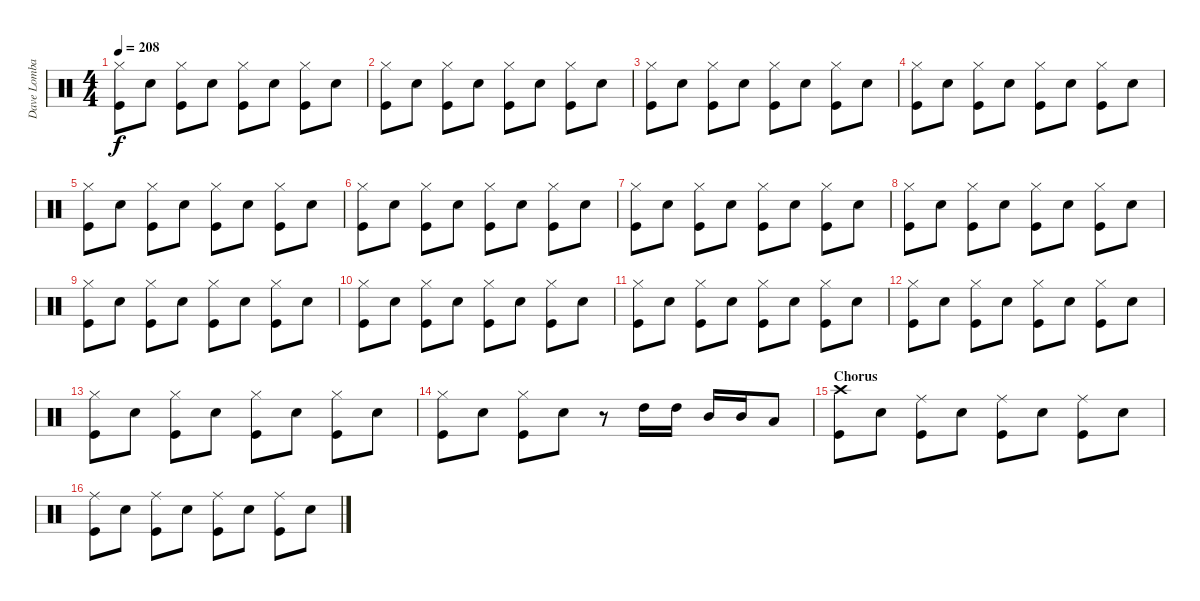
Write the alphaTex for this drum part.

\track ("Dave Lombardo" "Dave Lomba") {instrument percussion}
\staff {score}
\articulation defaults
\ts (4 4)
\tempo 208
\clef neutral
\ks c
("Hi-Hat (closed)" "Kick (hit)").8{dy f} "Electric Snare (hit)".8 ("Hi-Hat (closed)" "Kick (hit)").8 "Electric Snare (hit)".8 ("Hi-Hat (closed)" "Kick (hit)").8 "Electric Snare (hit)".8 ("Hi-Hat (closed)" "Kick (hit)").8 "Electric Snare (hit)".8 |
("Hi-Hat (closed)" "Kick (hit)").8 "Electric Snare (hit)".8 ("Hi-Hat (closed)" "Kick (hit)").8 "Electric Snare (hit)".8 ("Hi-Hat (closed)" "Kick (hit)").8 "Electric Snare (hit)".8 ("Hi-Hat (closed)" "Kick (hit)").8 "Electric Snare (hit)".8 |
("Hi-Hat (closed)" "Kick (hit)").8 "Electric Snare (hit)".8 ("Hi-Hat (closed)" "Kick (hit)").8 "Electric Snare (hit)".8 ("Hi-Hat (closed)" "Kick (hit)").8 "Electric Snare (hit)".8 ("Hi-Hat (closed)" "Kick (hit)").8 "Electric Snare (hit)".8 |
("Hi-Hat (closed)" "Kick (hit)").8 "Electric Snare (hit)".8 ("Hi-Hat (closed)" "Kick (hit)").8 "Electric Snare (hit)".8 ("Hi-Hat (closed)" "Kick (hit)").8 "Electric Snare (hit)".8 ("Hi-Hat (closed)" "Kick (hit)").8 "Electric Snare (hit)".8 |
("Hi-Hat (closed)" "Kick (hit)").8 "Electric Snare (hit)".8 ("Hi-Hat (closed)" "Kick (hit)").8 "Electric Snare (hit)".8 ("Hi-Hat (closed)" "Kick (hit)").8 "Electric Snare (hit)".8 ("Hi-Hat (closed)" "Kick (hit)").8 "Electric Snare (hit)".8 |
("Hi-Hat (closed)" "Kick (hit)").8 "Electric Snare (hit)".8 ("Hi-Hat (closed)" "Kick (hit)").8 "Electric Snare (hit)".8 ("Hi-Hat (closed)" "Kick (hit)").8 "Electric Snare (hit)".8 ("Hi-Hat (closed)" "Kick (hit)").8 "Electric Snare (hit)".8 |
("Hi-Hat (closed)" "Kick (hit)").8 "Electric Snare (hit)".8 ("Hi-Hat (closed)" "Kick (hit)").8 "Electric Snare (hit)".8 ("Hi-Hat (closed)" "Kick (hit)").8 "Electric Snare (hit)".8 ("Hi-Hat (closed)" "Kick (hit)").8 "Electric Snare (hit)".8 |
("Hi-Hat (closed)" "Kick (hit)").8 "Electric Snare (hit)".8 ("Hi-Hat (closed)" "Kick (hit)").8 "Electric Snare (hit)".8 ("Hi-Hat (closed)" "Kick (hit)").8 "Electric Snare (hit)".8 ("Hi-Hat (closed)" "Kick (hit)").8 "Electric Snare (hit)".8 |
("Hi-Hat (closed)" "Kick (hit)").8 "Electric Snare (hit)".8 ("Hi-Hat (closed)" "Kick (hit)").8 "Electric Snare (hit)".8 ("Hi-Hat (closed)" "Kick (hit)").8 "Electric Snare (hit)".8 ("Hi-Hat (closed)" "Kick (hit)").8 "Electric Snare (hit)".8 |
("Hi-Hat (closed)" "Kick (hit)").8 "Electric Snare (hit)".8 ("Hi-Hat (closed)" "Kick (hit)").8 "Electric Snare (hit)".8 ("Hi-Hat (closed)" "Kick (hit)").8 "Electric Snare (hit)".8 ("Hi-Hat (closed)" "Kick (hit)").8 "Electric Snare (hit)".8 |
("Hi-Hat (closed)" "Kick (hit)").8 "Electric Snare (hit)".8 ("Hi-Hat (closed)" "Kick (hit)").8 "Electric Snare (hit)".8 ("Hi-Hat (closed)" "Kick (hit)").8 "Electric Snare (hit)".8 ("Hi-Hat (closed)" "Kick (hit)").8 "Electric Snare (hit)".8 |
("Hi-Hat (closed)" "Kick (hit)").8 "Electric Snare (hit)".8 ("Hi-Hat (closed)" "Kick (hit)").8 "Electric Snare (hit)".8 ("Hi-Hat (closed)" "Kick (hit)").8 "Electric Snare (hit)".8 ("Hi-Hat (closed)" "Kick (hit)").8 "Electric Snare (hit)".8 |
("Hi-Hat (closed)" "Kick (hit)").8 "Electric Snare (hit)".8 ("Hi-Hat (closed)" "Kick (hit)").8 "Electric Snare (hit)".8 ("Hi-Hat (closed)" "Kick (hit)").8 "Electric Snare (hit)".8 ("Hi-Hat (closed)" "Kick (hit)").8 "Electric Snare (hit)".8 |
("Hi-Hat (closed)" "Kick (hit)").8 "Electric Snare (hit)".8 ("Hi-Hat (closed)" "Kick (hit)").8 "Electric Snare (hit)".8 r.8 "High Tom (hit)".16 "High Tom (hit)".16 "Mid Tom (hit)".16 "Mid Tom (hit)".16 "Low Tom (hit)".8 |
\section ("" "Chorus")
("Crash high (hit)" "Kick (hit)").8 "Electric Snare (hit)".8 ("Ride (middle)" "Kick (hit)").8 "Electric Snare (hit)".8 ("Ride (middle)" "Kick (hit)").8 "Electric Snare (hit)".8 ("Ride (middle)" "Kick (hit)").8 "Electric Snare (hit)".8 |
("Ride (middle)" "Kick (hit)").8 "Electric Snare (hit)".8 ("Ride (middle)" "Kick (hit)").8 "Electric Snare (hit)".8 ("Ride (middle)" "Kick (hit)").8 "Electric Snare (hit)".8 ("Ride (middle)" "Kick (hit)").8 "Electric Snare (hit)".8
